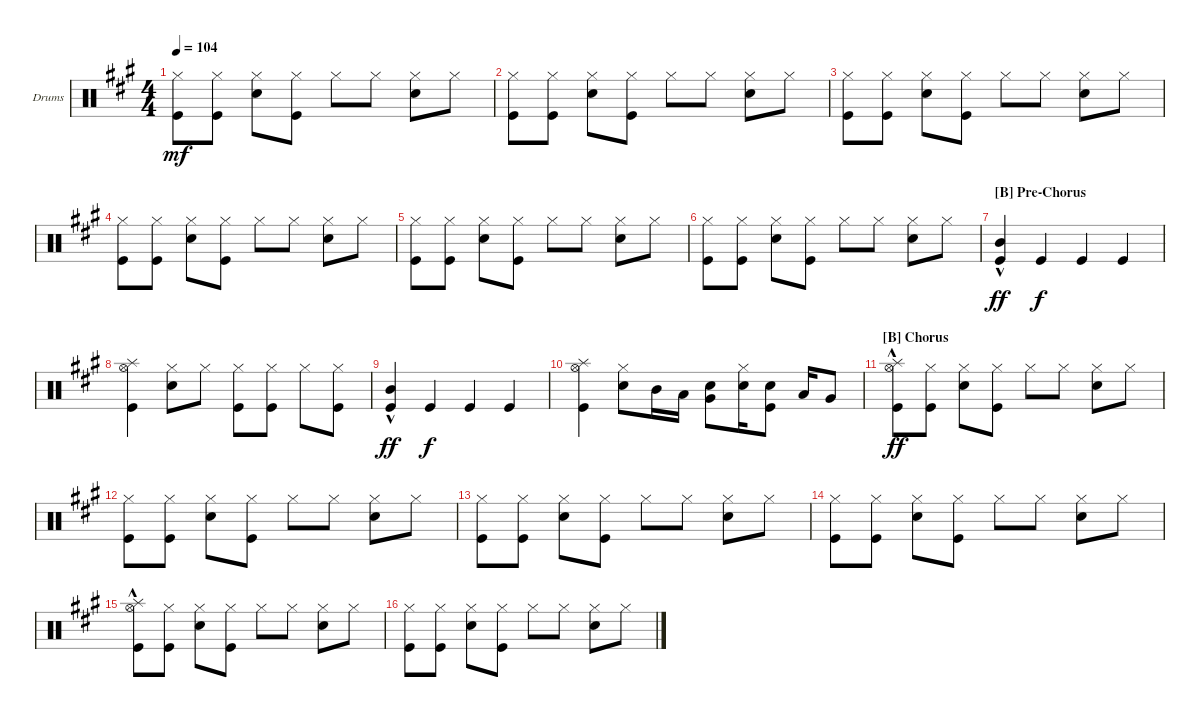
\defaultSystemsLayout 4
\bracketExtendMode groupsimilarinstruments
\firstSystemTrackNameOrientation horizontal
\otherSystemsTrackNameOrientation horizontal
\track ("Drumkit" "Drums") {instrument percussion}
\staff {score}
\articulation defaults
\ts (4 4)
\tempo 104
\clef neutral
\ks a
("Hi-Hat (closed)" "Kick (hit)").8{dy mf} ("Hi-Hat (closed)" "Kick (hit)").8 ("Hi-Hat (closed)" "Snare (hit) 2").8 ("Hi-Hat (closed)" "Kick (hit)").8 "Hi-Hat (closed)".8 "Hi-Hat (closed)".8 ("Hi-Hat (closed)" "Snare (hit) 2").8 "Hi-Hat (closed)".8 |
("Hi-Hat (closed)" "Kick (hit)").8 ("Hi-Hat (closed)" "Kick (hit)").8 ("Hi-Hat (closed)" "Snare (hit) 2").8 ("Hi-Hat (closed)" "Kick (hit)").8 "Hi-Hat (closed)".8 "Hi-Hat (closed)".8 ("Hi-Hat (closed)" "Snare (hit) 2").8 "Hi-Hat (closed)".8 |
("Hi-Hat (closed)" "Kick (hit)").8 ("Hi-Hat (closed)" "Kick (hit)").8 ("Hi-Hat (closed)" "Snare (hit) 2").8 ("Hi-Hat (closed)" "Kick (hit)").8 "Hi-Hat (closed)".8 "Hi-Hat (closed)".8 ("Hi-Hat (closed)" "Snare (hit) 2").8 "Hi-Hat (closed)".8 |
("Hi-Hat (closed)" "Kick (hit)").8 ("Hi-Hat (closed)" "Kick (hit)").8 ("Hi-Hat (closed)" "Snare (hit) 2").8 ("Hi-Hat (closed)" "Kick (hit)").8 "Hi-Hat (closed)".8 "Hi-Hat (closed)".8 ("Hi-Hat (closed)" "Snare (hit) 2").8 "Hi-Hat (closed)".8 |
("Hi-Hat (closed)" "Kick (hit)").8 ("Hi-Hat (closed)" "Kick (hit)").8 ("Hi-Hat (closed)" "Snare (hit) 2").8 ("Hi-Hat (closed)" "Kick (hit)").8 "Hi-Hat (closed)".8 "Hi-Hat (closed)".8 ("Hi-Hat (closed)" "Snare (hit) 2").8 "Hi-Hat (closed)".8 |
("Hi-Hat (closed)" "Kick (hit)").8 ("Hi-Hat (closed)" "Kick (hit)").8 ("Hi-Hat (closed)" "Snare (hit) 2").8 ("Hi-Hat (closed)" "Kick (hit)").8 "Hi-Hat (closed)".8 "Hi-Hat (closed)".8 ("Hi-Hat (closed)" "Snare (hit) 2").8 "Hi-Hat (closed)".8 |
\section ("B" "Pre-Chorus")
("Mid Tom (hit)"{hac} "Kick (hit)"{hac}).4{dy ff} "Kick (hit)".4{dy f} "Kick (hit)".4 "Kick (hit)".4 |
("Splash (hit)" "Hi-Hat (open)" "Kick (hit)").4 ("Hi-Hat (closed)" "Snare (hit) 2").8 "Hi-Hat (closed)".8 ("Hi-Hat (closed)" "Kick (hit)").8 ("Hi-Hat (closed)" "Kick (hit)").8 "Hi-Hat (closed)".8 ("Hi-Hat (closed)" "Kick (hit)").8 |
("Mid Tom (hit)"{hac} "Kick (hit)"{hac}).4{dy ff} "Kick (hit)".4{dy f} "Kick (hit)".4 "Kick (hit)".4 |
("Splash (hit)" "Hi-Hat (open)" "Kick (hit)").4 ("Hi-Hat (closed)" "Snare (hit) 2").8 "Mid Tom (hit)".16 "Low Tom (hit)".16 ("Very Low Tom (hit)" "Snare (hit) 2").8 ("Hi-Hat (closed)" "Snare (hit) 2").16 ("Kick (hit)" "Snare (hit) 2").8 "Low Tom (hit)".16 "Very Low Tom (hit)".8 |
\section ("B" "Chorus")
("Hi-Hat (open)" "Kick (hit)" "Splash (hit)"{hac}).8{dy ff} ("Hi-Hat (closed)" "Kick (hit)").8 ("Hi-Hat (closed)" "Snare (hit) 2").8 ("Hi-Hat (closed)" "Kick (hit)").8 "Hi-Hat (closed)".8 "Hi-Hat (closed)".8 ("Hi-Hat (closed)" "Snare (hit) 2").8 "Hi-Hat (closed)".8 |
("Hi-Hat (closed)" "Kick (hit)").8 ("Hi-Hat (closed)" "Kick (hit)").8 ("Hi-Hat (closed)" "Snare (hit) 2").8 ("Hi-Hat (closed)" "Kick (hit)").8 "Hi-Hat (closed)".8 "Hi-Hat (closed)".8 ("Hi-Hat (closed)" "Snare (hit) 2").8 "Hi-Hat (closed)".8 |
("Hi-Hat (closed)" "Kick (hit)").8 ("Hi-Hat (closed)" "Kick (hit)").8 ("Hi-Hat (closed)" "Snare (hit) 2").8 ("Hi-Hat (closed)" "Kick (hit)").8 "Hi-Hat (closed)".8 "Hi-Hat (closed)".8 ("Hi-Hat (closed)" "Snare (hit) 2").8 "Hi-Hat (closed)".8 |
("Hi-Hat (closed)" "Kick (hit)").8 ("Hi-Hat (closed)" "Kick (hit)").8 ("Hi-Hat (closed)" "Snare (hit) 2").8 ("Hi-Hat (closed)" "Kick (hit)").8 "Hi-Hat (closed)".8 "Hi-Hat (closed)".8 ("Hi-Hat (closed)" "Snare (hit) 2").8 "Hi-Hat (closed)".8 |
("Hi-Hat (open)" "Kick (hit)" "Splash (hit)"{hac}).8 ("Hi-Hat (closed)" "Kick (hit)").8 ("Hi-Hat (closed)" "Snare (hit) 2").8 ("Hi-Hat (closed)" "Kick (hit)").8 "Hi-Hat (closed)".8 "Hi-Hat (closed)".8 ("Hi-Hat (closed)" "Snare (hit) 2").8 "Hi-Hat (closed)".8 |
("Hi-Hat (closed)" "Kick (hit)").8 ("Hi-Hat (closed)" "Kick (hit)").8 ("Hi-Hat (closed)" "Snare (hit) 2").8 ("Hi-Hat (closed)" "Kick (hit)").8 "Hi-Hat (closed)".8 "Hi-Hat (closed)".8 ("Hi-Hat (closed)" "Snare (hit) 2").8 "Hi-Hat (closed)".8
